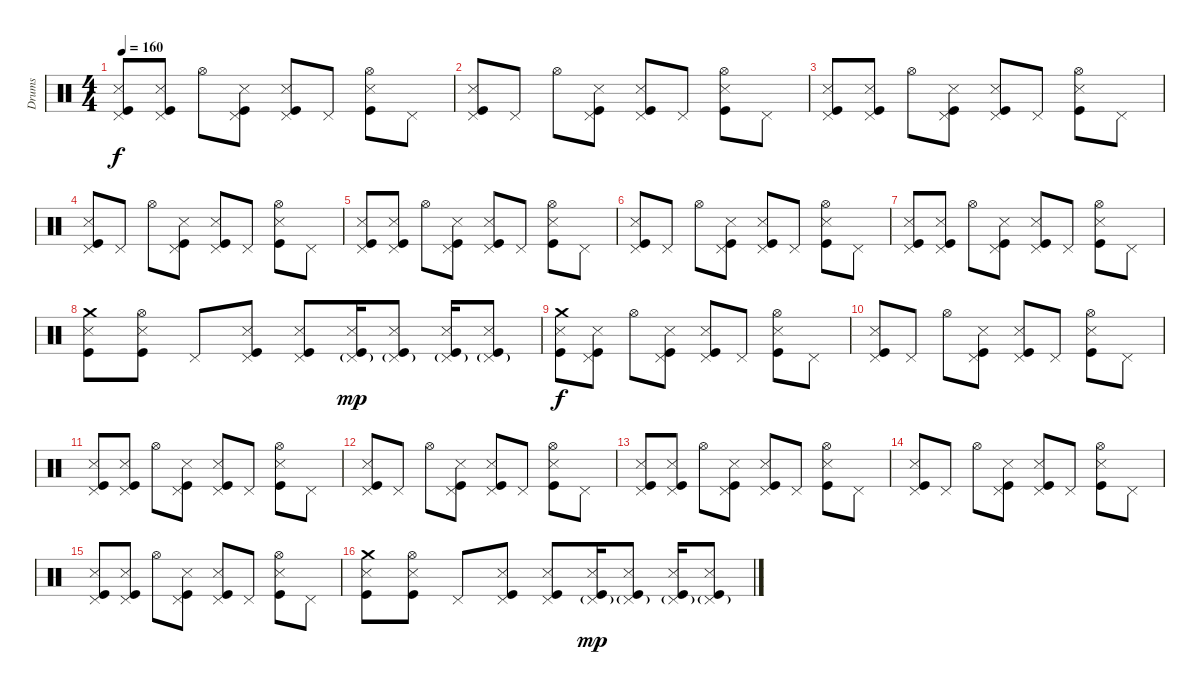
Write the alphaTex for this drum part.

\track ("Drums" "Drums") {instrument percussion}
\staff {score}
\articulation defaults
\ts (4 4)
\tempo 160
\clef neutral
\ks c
("Pedal Hi-Hat (hit)" "Snare (side stick) 3" "Kick (hit)").8{dy f} ("Pedal Hi-Hat (hit)" "Snare (side stick) 3" "Kick (hit)").8 "Hi-Hat (open)".8 ("Pedal Hi-Hat (hit)" "Snare (side stick) 3" "Kick (hit)").8 ("Pedal Hi-Hat (hit)" "Snare (side stick) 3" "Kick (hit)").8 "Pedal Hi-Hat (hit)".8 ("Hi-Hat (open)" "Snare (side stick) 3" "Kick (hit)").8 "Pedal Hi-Hat (hit)".8 |
("Pedal Hi-Hat (hit)" "Snare (side stick) 3" "Kick (hit)").8 "Pedal Hi-Hat (hit)".8 "Hi-Hat (open)".8 ("Pedal Hi-Hat (hit)" "Snare (side stick) 3" "Kick (hit)").8 ("Pedal Hi-Hat (hit)" "Snare (side stick) 3" "Kick (hit)").8 "Pedal Hi-Hat (hit)".8 ("Hi-Hat (open)" "Snare (side stick) 3" "Kick (hit)").8 "Pedal Hi-Hat (hit)".8 |
("Pedal Hi-Hat (hit)" "Snare (side stick) 3" "Kick (hit)").8 ("Pedal Hi-Hat (hit)" "Snare (side stick) 3" "Kick (hit)").8 "Hi-Hat (open)".8 ("Pedal Hi-Hat (hit)" "Snare (side stick) 3" "Kick (hit)").8 ("Pedal Hi-Hat (hit)" "Snare (side stick) 3" "Kick (hit)").8 "Pedal Hi-Hat (hit)".8 ("Hi-Hat (open)" "Snare (side stick) 3" "Kick (hit)").8 "Pedal Hi-Hat (hit)".8 |
("Pedal Hi-Hat (hit)" "Snare (side stick) 3" "Kick (hit)").8 "Pedal Hi-Hat (hit)".8 "Hi-Hat (open)".8 ("Pedal Hi-Hat (hit)" "Snare (side stick) 3" "Kick (hit)").8 ("Pedal Hi-Hat (hit)" "Snare (side stick) 3" "Kick (hit)").8 "Pedal Hi-Hat (hit)".8 ("Hi-Hat (open)" "Snare (side stick) 3" "Kick (hit)").8 "Pedal Hi-Hat (hit)".8 |
("Pedal Hi-Hat (hit)" "Snare (side stick) 3" "Kick (hit)").8 ("Pedal Hi-Hat (hit)" "Snare (side stick) 3" "Kick (hit)").8 "Hi-Hat (open)".8 ("Pedal Hi-Hat (hit)" "Snare (side stick) 3" "Kick (hit)").8 ("Pedal Hi-Hat (hit)" "Snare (side stick) 3" "Kick (hit)").8 "Pedal Hi-Hat (hit)".8 ("Hi-Hat (open)" "Snare (side stick) 3" "Kick (hit)").8 "Pedal Hi-Hat (hit)".8 |
("Pedal Hi-Hat (hit)" "Snare (side stick) 3" "Kick (hit)").8 "Pedal Hi-Hat (hit)".8 "Hi-Hat (open)".8 ("Pedal Hi-Hat (hit)" "Snare (side stick) 3" "Kick (hit)").8 ("Pedal Hi-Hat (hit)" "Snare (side stick) 3" "Kick (hit)").8 "Pedal Hi-Hat (hit)".8 ("Hi-Hat (open)" "Snare (side stick) 3" "Kick (hit)").8 "Pedal Hi-Hat (hit)".8 |
("Pedal Hi-Hat (hit)" "Snare (side stick) 3" "Kick (hit)").8 ("Pedal Hi-Hat (hit)" "Snare (side stick) 3" "Kick (hit)").8 "Hi-Hat (open)".8 ("Pedal Hi-Hat (hit)" "Snare (side stick) 3" "Kick (hit)").8 ("Pedal Hi-Hat (hit)" "Snare (side stick) 3" "Kick (hit)").8 "Pedal Hi-Hat (hit)".8 ("Hi-Hat (open)" "Snare (side stick) 3" "Kick (hit)").8 "Pedal Hi-Hat (hit)".8 |
("Crash medium (hit)" "Snare (side stick) 3" "Kick (hit)").8 ("Hi-Hat (open)" "Snare (side stick) 3" "Kick (hit)").8 "Pedal Hi-Hat (hit)".8 ("Pedal Hi-Hat (hit)" "Snare (side stick) 3" "Kick (hit)").8 ("Pedal Hi-Hat (hit)" "Snare (side stick) 3" "Kick (hit)").8 ("Pedal Hi-Hat (hit)"{g} "Snare (side stick) 3" "Kick (hit)").16{dy mp} ("Pedal Hi-Hat (hit)"{g} "Snare (side stick) 3" "Kick (hit)").8 ("Pedal Hi-Hat (hit)"{g} "Snare (side stick) 3" "Kick (hit)").16 ("Pedal Hi-Hat (hit)"{g} "Snare (side stick) 3" "Kick (hit)").8 |
("Crash medium (hit)" "Snare (side stick) 3" "Kick (hit)").8{dy f} ("Pedal Hi-Hat (hit)" "Snare (side stick) 3" "Kick (hit)").8 "Hi-Hat (open)".8 ("Pedal Hi-Hat (hit)" "Snare (side stick) 3" "Kick (hit)").8 ("Pedal Hi-Hat (hit)" "Snare (side stick) 3" "Kick (hit)").8 "Pedal Hi-Hat (hit)".8 ("Hi-Hat (open)" "Snare (side stick) 3" "Kick (hit)").8 "Pedal Hi-Hat (hit)".8 |
("Pedal Hi-Hat (hit)" "Snare (side stick) 3" "Kick (hit)").8 "Pedal Hi-Hat (hit)".8 "Hi-Hat (open)".8 ("Pedal Hi-Hat (hit)" "Snare (side stick) 3" "Kick (hit)").8 ("Pedal Hi-Hat (hit)" "Snare (side stick) 3" "Kick (hit)").8 "Pedal Hi-Hat (hit)".8 ("Hi-Hat (open)" "Snare (side stick) 3" "Kick (hit)").8 "Pedal Hi-Hat (hit)".8 |
("Pedal Hi-Hat (hit)" "Snare (side stick) 3" "Kick (hit)").8 ("Pedal Hi-Hat (hit)" "Snare (side stick) 3" "Kick (hit)").8 "Hi-Hat (open)".8 ("Pedal Hi-Hat (hit)" "Snare (side stick) 3" "Kick (hit)").8 ("Pedal Hi-Hat (hit)" "Snare (side stick) 3" "Kick (hit)").8 "Pedal Hi-Hat (hit)".8 ("Hi-Hat (open)" "Snare (side stick) 3" "Kick (hit)").8 "Pedal Hi-Hat (hit)".8 |
("Pedal Hi-Hat (hit)" "Snare (side stick) 3" "Kick (hit)").8 "Pedal Hi-Hat (hit)".8 "Hi-Hat (open)".8 ("Pedal Hi-Hat (hit)" "Snare (side stick) 3" "Kick (hit)").8 ("Pedal Hi-Hat (hit)" "Snare (side stick) 3" "Kick (hit)").8 "Pedal Hi-Hat (hit)".8 ("Hi-Hat (open)" "Snare (side stick) 3" "Kick (hit)").8 "Pedal Hi-Hat (hit)".8 |
("Pedal Hi-Hat (hit)" "Snare (side stick) 3" "Kick (hit)").8 ("Pedal Hi-Hat (hit)" "Snare (side stick) 3" "Kick (hit)").8 "Hi-Hat (open)".8 ("Pedal Hi-Hat (hit)" "Snare (side stick) 3" "Kick (hit)").8 ("Pedal Hi-Hat (hit)" "Snare (side stick) 3" "Kick (hit)").8 "Pedal Hi-Hat (hit)".8 ("Hi-Hat (open)" "Snare (side stick) 3" "Kick (hit)").8 "Pedal Hi-Hat (hit)".8 |
("Pedal Hi-Hat (hit)" "Snare (side stick) 3" "Kick (hit)").8 "Pedal Hi-Hat (hit)".8 "Hi-Hat (open)".8 ("Pedal Hi-Hat (hit)" "Snare (side stick) 3" "Kick (hit)").8 ("Pedal Hi-Hat (hit)" "Snare (side stick) 3" "Kick (hit)").8 "Pedal Hi-Hat (hit)".8 ("Hi-Hat (open)" "Snare (side stick) 3" "Kick (hit)").8 "Pedal Hi-Hat (hit)".8 |
("Pedal Hi-Hat (hit)" "Snare (side stick) 3" "Kick (hit)").8 ("Pedal Hi-Hat (hit)" "Snare (side stick) 3" "Kick (hit)").8 "Hi-Hat (open)".8 ("Pedal Hi-Hat (hit)" "Snare (side stick) 3" "Kick (hit)").8 ("Pedal Hi-Hat (hit)" "Snare (side stick) 3" "Kick (hit)").8 "Pedal Hi-Hat (hit)".8 ("Hi-Hat (open)" "Snare (side stick) 3" "Kick (hit)").8 "Pedal Hi-Hat (hit)".8 |
("Crash medium (hit)" "Snare (side stick) 3" "Kick (hit)").8 ("Hi-Hat (open)" "Snare (side stick) 3" "Kick (hit)").8 "Pedal Hi-Hat (hit)".8 ("Pedal Hi-Hat (hit)" "Snare (side stick) 3" "Kick (hit)").8 ("Pedal Hi-Hat (hit)" "Snare (side stick) 3" "Kick (hit)").8 ("Pedal Hi-Hat (hit)"{g} "Snare (side stick) 3" "Kick (hit)").16{dy mp} ("Pedal Hi-Hat (hit)"{g} "Snare (side stick) 3" "Kick (hit)").8 ("Pedal Hi-Hat (hit)"{g} "Snare (side stick) 3" "Kick (hit)").16 ("Pedal Hi-Hat (hit)"{g} "Snare (side stick) 3" "Kick (hit)").8
